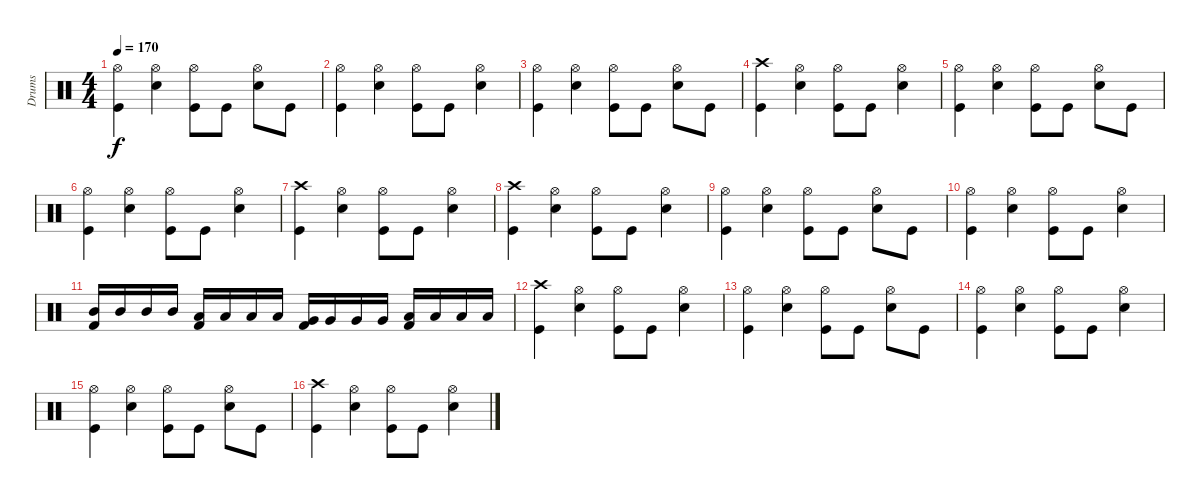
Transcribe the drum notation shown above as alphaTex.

\track ("Drums" "Drums") {instrument percussion}
\staff {score}
\articulation defaults
\ts (4 4)
\tempo 170
\clef neutral
\ks c
("Hi-Hat (open)" "Kick (hit)").4{dy f} ("Hi-Hat (open)" "Electric Snare (hit)").4 ("Hi-Hat (open)" "Kick (hit)").8 "Kick (hit)".8 ("Hi-Hat (open)" "Electric Snare (hit)").8 "Kick (hit)".8 |
("Hi-Hat (open)" "Kick (hit)").4 ("Hi-Hat (open)" "Electric Snare (hit)").4 ("Hi-Hat (open)" "Kick (hit)").8 "Kick (hit)".8 ("Hi-Hat (open)" "Electric Snare (hit)").4 |
("Hi-Hat (open)" "Kick (hit)").4 ("Hi-Hat (open)" "Electric Snare (hit)").4 ("Hi-Hat (open)" "Kick (hit)").8 "Kick (hit)".8 ("Hi-Hat (open)" "Electric Snare (hit)").8 "Kick (hit)".8 |
("Crash high (hit)" "Kick (hit)").4 ("Hi-Hat (open)" "Electric Snare (hit)").4 ("Hi-Hat (open)" "Kick (hit)").8 "Kick (hit)".8 ("Hi-Hat (open)" "Electric Snare (hit)").4 |
("Hi-Hat (open)" "Kick (hit)").4 ("Hi-Hat (open)" "Electric Snare (hit)").4 ("Hi-Hat (open)" "Kick (hit)").8 "Kick (hit)".8 ("Hi-Hat (open)" "Electric Snare (hit)").8 "Kick (hit)".8 |
("Hi-Hat (open)" "Kick (hit)").4 ("Hi-Hat (open)" "Electric Snare (hit)").4 ("Hi-Hat (open)" "Kick (hit)").8 "Kick (hit)".8 ("Hi-Hat (open)" "Electric Snare (hit)").4 |
("Crash high (hit)" "Kick (hit)").4 ("Hi-Hat (open)" "Electric Snare (hit)").4 ("Hi-Hat (open)" "Kick (hit)").8 "Kick (hit)".8 ("Hi-Hat (open)" "Electric Snare (hit)").4 |
("Crash high (hit)" "Kick (hit)").4 ("Hi-Hat (open)" "Electric Snare (hit)").4 ("Hi-Hat (open)" "Kick (hit)").8 "Kick (hit)".8 ("Hi-Hat (open)" "Electric Snare (hit)").4 |
("Hi-Hat (open)" "Kick (hit)").4 ("Hi-Hat (open)" "Electric Snare (hit)").4 ("Hi-Hat (open)" "Kick (hit)").8 "Kick (hit)".8 ("Hi-Hat (open)" "Electric Snare (hit)").8 "Kick (hit)".8 |
("Hi-Hat (open)" "Kick (hit)").4 ("Hi-Hat (open)" "Electric Snare (hit)").4 ("Hi-Hat (open)" "Kick (hit)").8 "Kick (hit)".8 ("Hi-Hat (open)" "Electric Snare (hit)").4 |
("Mid Tom (hit)" "Kick (hit) 2").16 "Mid Tom (hit)".16 "Mid Tom (hit)".16 "Mid Tom (hit)".16 ("Low Tom (hit)" "Kick (hit) 2").16 "Low Tom (hit)".16 "Low Tom (hit)".16 "Low Tom (hit)".16 ("Very Low Tom (hit)" "Kick (hit) 2").16 "Very Low Tom (hit)".16 "Very Low Tom (hit)".16 "Very Low Tom (hit)".16 ("Low Floor Tom (hit)" "Kick (hit) 2").16 "Low Floor Tom (hit)".16 "Low Floor Tom (hit)".16 "Low Floor Tom (hit)".16 |
("Crash high (hit)" "Kick (hit)").4 ("Hi-Hat (open)" "Electric Snare (hit)").4 ("Hi-Hat (open)" "Kick (hit)").8 "Kick (hit)".8 ("Hi-Hat (open)" "Electric Snare (hit)").4 |
("Hi-Hat (open)" "Kick (hit)").4 ("Hi-Hat (open)" "Electric Snare (hit)").4 ("Hi-Hat (open)" "Kick (hit)").8 "Kick (hit)".8 ("Hi-Hat (open)" "Electric Snare (hit)").8 "Kick (hit)".8 |
("Hi-Hat (open)" "Kick (hit)").4 ("Hi-Hat (open)" "Electric Snare (hit)").4 ("Hi-Hat (open)" "Kick (hit)").8 "Kick (hit)".8 ("Hi-Hat (open)" "Electric Snare (hit)").4 |
("Hi-Hat (open)" "Kick (hit)").4 ("Hi-Hat (open)" "Electric Snare (hit)").4 ("Hi-Hat (open)" "Kick (hit)").8 "Kick (hit)".8 ("Hi-Hat (open)" "Electric Snare (hit)").8 "Kick (hit)".8 |
("Crash high (hit)" "Kick (hit)").4 ("Hi-Hat (open)" "Electric Snare (hit)").4 ("Hi-Hat (open)" "Kick (hit)").8 "Kick (hit)".8 ("Hi-Hat (open)" "Electric Snare (hit)").4
